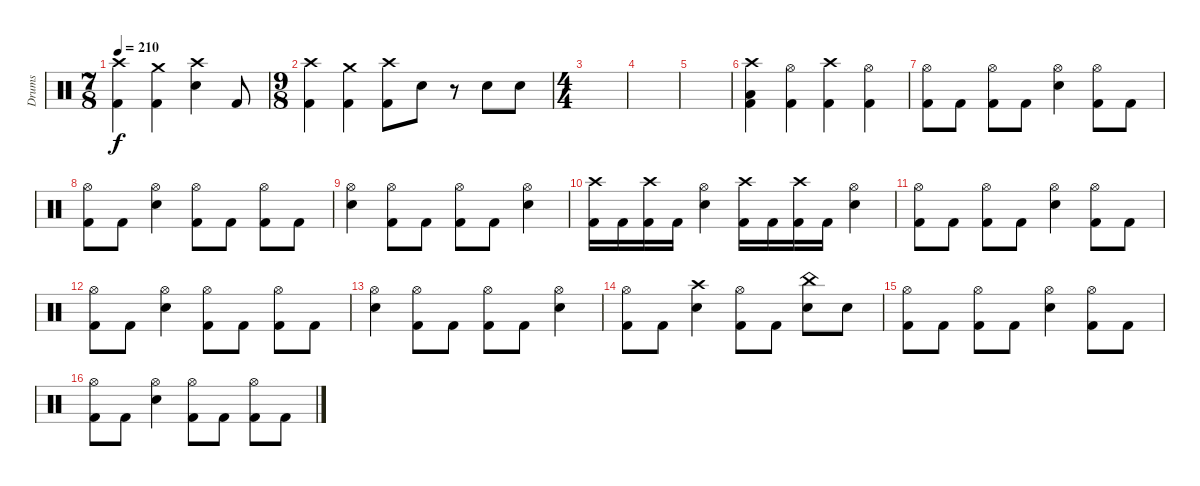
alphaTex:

\track ("Drums" "Drums") {instrument percussion}
\staff {score}
\articulation defaults
\ts (7 8)
\tempo 210
\clef neutral
\ks c
("Crash high (hit)" "Kick (hit) 2").4{dy f} ("Crash medium (hit)" "Kick (hit) 2").4 ("Crash high (hit)" "Electric Snare (hit)").4 "Kick (hit) 2".8 |
\ts (9 8)
("Crash high (hit)" "Kick (hit) 2").4 ("Crash medium (hit)" "Kick (hit) 2").4 ("Crash high (hit)" "Kick (hit) 2").8 "Electric Snare (hit)".8 r.8 "Electric Snare (hit)".8 "Electric Snare (hit)".8 |
\ts (4 4)
|
|
|
("Crash high (hit)" "Low Tom (hit)" "Kick (hit) 2").4 ("Hi-Hat (open)" "Kick (hit) 2").4 ("Crash high (hit)" "Kick (hit) 2").4 ("Hi-Hat (open)" "Kick (hit) 2").4 |
("Hi-Hat (open)" "Kick (hit) 2").8 "Kick (hit) 2".8 ("Hi-Hat (open)" "Kick (hit) 2").8 "Kick (hit) 2".8 ("Hi-Hat (open)" "Electric Snare (hit)").4 ("Hi-Hat (open)" "Kick (hit) 2").8 "Kick (hit) 2".8 |
("Hi-Hat (open)" "Kick (hit) 2").8 "Kick (hit) 2".8 ("Hi-Hat (open)" "Electric Snare (hit)").4 ("Hi-Hat (open)" "Kick (hit) 2").8 "Kick (hit) 2".8 ("Hi-Hat (open)" "Kick (hit) 2").8 "Kick (hit) 2".8 |
("Hi-Hat (open)" "Electric Snare (hit)").4 ("Hi-Hat (open)" "Kick (hit) 2").8 "Kick (hit) 2".8 ("Hi-Hat (open)" "Kick (hit) 2").8 "Kick (hit) 2".8 ("Hi-Hat (open)" "Electric Snare (hit)").4 |
("Crash high (hit)" "Kick (hit) 2").16 "Kick (hit) 2".16 ("Crash high (hit)" "Kick (hit) 2").16 "Kick (hit) 2".16 ("Hi-Hat (open)" "Electric Snare (hit)").4 ("Crash high (hit)" "Kick (hit) 2").16 "Kick (hit) 2".16 ("Crash high (hit)" "Kick (hit) 2").16 "Kick (hit) 2".16 ("Hi-Hat (open)" "Electric Snare (hit)").4 |
("Hi-Hat (open)" "Kick (hit) 2").8 "Kick (hit) 2".8 ("Hi-Hat (open)" "Kick (hit) 2").8 "Kick (hit) 2".8 ("Hi-Hat (open)" "Electric Snare (hit)").4 ("Hi-Hat (open)" "Kick (hit) 2").8 "Kick (hit) 2".8 |
("Hi-Hat (open)" "Kick (hit) 2").8 "Kick (hit) 2".8 ("Hi-Hat (open)" "Electric Snare (hit)").4 ("Hi-Hat (open)" "Kick (hit) 2").8 "Kick (hit) 2".8 ("Hi-Hat (open)" "Kick (hit) 2").8 "Kick (hit) 2".8 |
("Hi-Hat (open)" "Electric Snare (hit)").4 ("Hi-Hat (open)" "Kick (hit) 2").8 "Kick (hit) 2".8 ("Hi-Hat (open)" "Kick (hit) 2").8 "Kick (hit) 2".8 ("Hi-Hat (open)" "Electric Snare (hit)").4 |
("Hi-Hat (open)" "Kick (hit) 2").8 "Kick (hit) 2".8 ("Crash high (hit)" "Electric Snare (hit)").4 ("Hi-Hat (open)" "Kick (hit) 2").8 "Kick (hit) 2".8 ("China (hit)" "Electric Snare (hit)").8 "Electric Snare (hit)".8 |
("Hi-Hat (open)" "Kick (hit) 2").8 "Kick (hit) 2".8 ("Hi-Hat (open)" "Kick (hit) 2").8 "Kick (hit) 2".8 ("Hi-Hat (open)" "Electric Snare (hit)").4 ("Hi-Hat (open)" "Kick (hit) 2").8 "Kick (hit) 2".8 |
("Hi-Hat (open)" "Kick (hit) 2").8 "Kick (hit) 2".8 ("Hi-Hat (open)" "Electric Snare (hit)").4 ("Hi-Hat (open)" "Kick (hit) 2").8 "Kick (hit) 2".8 ("Hi-Hat (open)" "Kick (hit) 2").8 "Kick (hit) 2".8
